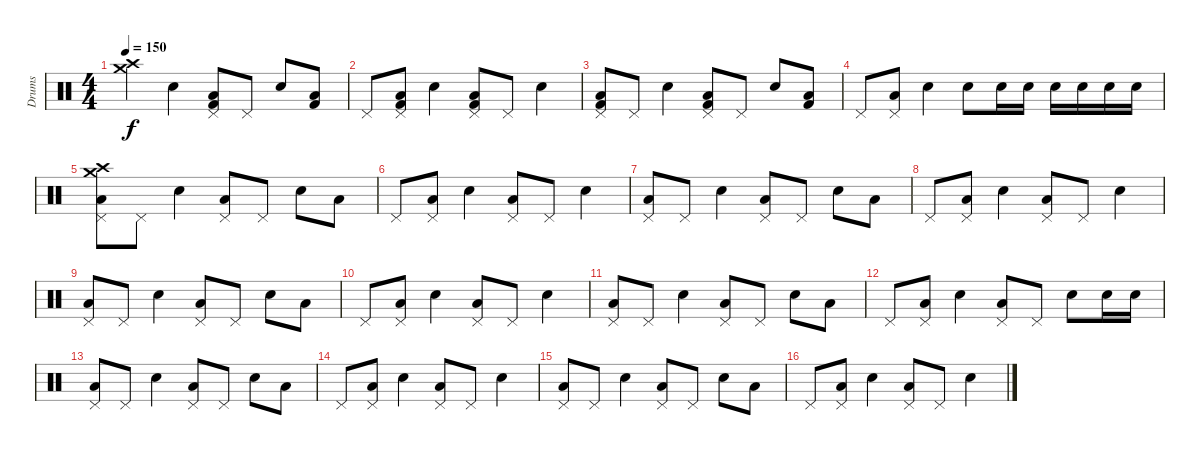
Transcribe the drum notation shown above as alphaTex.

\track ("Drums" "Drums") {instrument percussion}
\staff {score}
\articulation defaults
\ts (4 4)
\tempo 150
\clef neutral
\ks c
("Crash high (hit)" "Crash medium (hit)").4{dy f} "Snare (hit) 2".4 ("Pedal Hi-Hat (hit)" "Low Floor Tom (hit)" "Kick (hit) 2").8 "Pedal Hi-Hat (hit)".8 "Snare (hit) 2".8 ("Low Floor Tom (hit)" "Kick (hit) 2").8 |
"Pedal Hi-Hat (hit)".8 ("Pedal Hi-Hat (hit)" "Low Floor Tom (hit)" "Kick (hit) 2").8 "Snare (hit) 2".4 ("Pedal Hi-Hat (hit)" "Low Floor Tom (hit)" "Kick (hit) 2").8 "Pedal Hi-Hat (hit)".8 "Snare (hit) 2".4 |
("Pedal Hi-Hat (hit)" "Low Floor Tom (hit)" "Kick (hit) 2").8 "Pedal Hi-Hat (hit)".8 "Snare (hit) 2".4 ("Pedal Hi-Hat (hit)" "Low Floor Tom (hit)" "Kick (hit) 2").8 "Pedal Hi-Hat (hit)".8 "Snare (hit) 2".8 ("Low Floor Tom (hit)" "Kick (hit) 2").8 |
"Pedal Hi-Hat (hit)".8 ("Low Floor Tom (hit)" "Pedal Hi-Hat (hit)").8 "Snare (hit) 2".4 "Snare (hit) 2".8 "Snare (hit) 2".16 "Snare (hit) 2".16 "Snare (hit) 2".16 "Snare (hit) 2".16 "Snare (hit) 2".16 "Snare (hit) 2".16 |
("Low Floor Tom (hit)" "Pedal Hi-Hat (hit)" "Crash medium (hit)" "Crash high (hit)").8 "Pedal Hi-Hat (hit)".8 "Snare (hit) 2".4 ("Low Floor Tom (hit)" "Pedal Hi-Hat (hit)").8 "Pedal Hi-Hat (hit)".8 "Snare (hit) 2".8 "Low Floor Tom (hit)".8 |
"Pedal Hi-Hat (hit)".8 ("Low Floor Tom (hit)" "Pedal Hi-Hat (hit)").8 "Snare (hit) 2".4 ("Low Floor Tom (hit)" "Pedal Hi-Hat (hit)").8 "Pedal Hi-Hat (hit)".8 "Snare (hit) 2".4 |
("Low Floor Tom (hit)" "Pedal Hi-Hat (hit)").8 "Pedal Hi-Hat (hit)".8 "Snare (hit) 2".4 ("Low Floor Tom (hit)" "Pedal Hi-Hat (hit)").8 "Pedal Hi-Hat (hit)".8 "Snare (hit) 2".8 "Low Floor Tom (hit)".8 |
"Pedal Hi-Hat (hit)".8 ("Low Floor Tom (hit)" "Pedal Hi-Hat (hit)").8 "Snare (hit) 2".4 ("Low Floor Tom (hit)" "Pedal Hi-Hat (hit)").8 "Pedal Hi-Hat (hit)".8 "Snare (hit) 2".4 |
("Low Floor Tom (hit)" "Pedal Hi-Hat (hit)").8 "Pedal Hi-Hat (hit)".8 "Snare (hit) 2".4 ("Low Floor Tom (hit)" "Pedal Hi-Hat (hit)").8 "Pedal Hi-Hat (hit)".8 "Snare (hit) 2".8 "Low Floor Tom (hit)".8 |
"Pedal Hi-Hat (hit)".8 ("Low Floor Tom (hit)" "Pedal Hi-Hat (hit)").8 "Snare (hit) 2".4 ("Low Floor Tom (hit)" "Pedal Hi-Hat (hit)").8 "Pedal Hi-Hat (hit)".8 "Snare (hit) 2".4 |
("Low Floor Tom (hit)" "Pedal Hi-Hat (hit)").8 "Pedal Hi-Hat (hit)".8 "Snare (hit) 2".4 ("Low Floor Tom (hit)" "Pedal Hi-Hat (hit)").8 "Pedal Hi-Hat (hit)".8 "Snare (hit) 2".8 "Low Floor Tom (hit)".8 |
"Pedal Hi-Hat (hit)".8 ("Low Floor Tom (hit)" "Pedal Hi-Hat (hit)").8 "Snare (hit) 2".4 ("Low Floor Tom (hit)" "Pedal Hi-Hat (hit)").8 "Pedal Hi-Hat (hit)".8 "Snare (hit) 2".8 "Snare (hit) 2".16 "Snare (hit) 2".16 |
("Low Floor Tom (hit)" "Pedal Hi-Hat (hit)").8 "Pedal Hi-Hat (hit)".8 "Snare (hit) 2".4 ("Low Floor Tom (hit)" "Pedal Hi-Hat (hit)").8 "Pedal Hi-Hat (hit)".8 "Snare (hit) 2".8 "Low Floor Tom (hit)".8 |
"Pedal Hi-Hat (hit)".8 ("Low Floor Tom (hit)" "Pedal Hi-Hat (hit)").8 "Snare (hit) 2".4 ("Low Floor Tom (hit)" "Pedal Hi-Hat (hit)").8 "Pedal Hi-Hat (hit)".8 "Snare (hit) 2".4 |
("Low Floor Tom (hit)" "Pedal Hi-Hat (hit)").8 "Pedal Hi-Hat (hit)".8 "Snare (hit) 2".4 ("Low Floor Tom (hit)" "Pedal Hi-Hat (hit)").8 "Pedal Hi-Hat (hit)".8 "Snare (hit) 2".8 "Low Floor Tom (hit)".8 |
"Pedal Hi-Hat (hit)".8 ("Low Floor Tom (hit)" "Pedal Hi-Hat (hit)").8 "Snare (hit) 2".4 ("Low Floor Tom (hit)" "Pedal Hi-Hat (hit)").8 "Pedal Hi-Hat (hit)".8 "Snare (hit) 2".4
